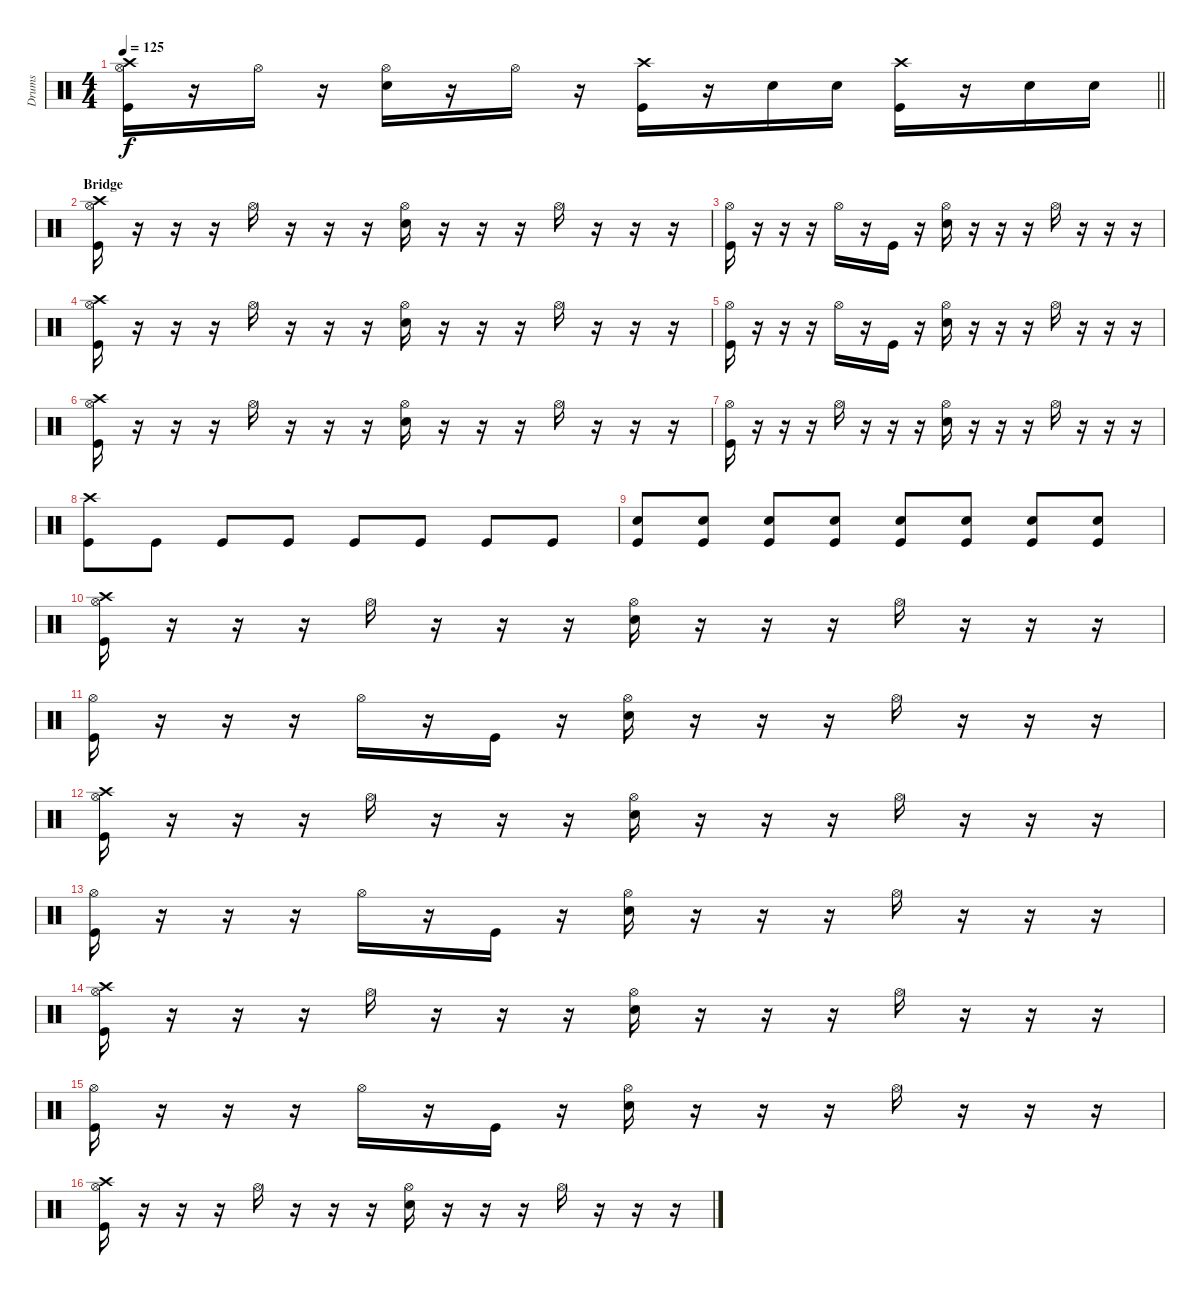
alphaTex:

\track ("Drums" "Drums") {instrument percussion}
\staff {score}
\articulation defaults
\ts (4 4)
\tempo 125
\clef neutral
\barLineRight lightlight
\ks c
("Crash high (hit)" "Hi-Hat (open)" "Kick (hit)").16{dy f} r.16 "Hi-Hat (open)".16 r.16 ("Hi-Hat (open)" "Snare (hit) 2").16 r.16 "Hi-Hat (open)".16 r.16 ("Crash high (hit)" "Kick (hit)").16 r.16 "Snare (hit) 2".16 "Snare (hit) 2".16 ("Crash high (hit)" "Kick (hit)").16 r.16 "Snare (hit) 2".16 "Snare (hit) 2".16 |
\section ("" "Bridge")
("Crash high (hit)" "Hi-Hat (open)" "Kick (hit)").16 r.16 r.16 r.16 "Hi-Hat (open)".16 r.16 r.16 r.16 ("Hi-Hat (open)" "Snare (hit) 2").16 r.16 r.16 r.16 "Hi-Hat (open)".16 r.16 r.16 r.16 |
("Hi-Hat (open)" "Kick (hit)").16 r.16 r.16 r.16 "Hi-Hat (open)".16 r.16 "Kick (hit)".16 r.16 ("Hi-Hat (open)" "Snare (hit) 2").16 r.16 r.16 r.16 "Hi-Hat (open)".16 r.16 r.16 r.16 |
("Crash high (hit)" "Hi-Hat (open)" "Kick (hit)").16 r.16 r.16 r.16 "Hi-Hat (open)".16 r.16 r.16 r.16 ("Hi-Hat (open)" "Snare (hit) 2").16 r.16 r.16 r.16 "Hi-Hat (open)".16 r.16 r.16 r.16 |
("Hi-Hat (open)" "Kick (hit)").16 r.16 r.16 r.16 "Hi-Hat (open)".16 r.16 "Kick (hit)".16 r.16 ("Hi-Hat (open)" "Snare (hit) 2").16 r.16 r.16 r.16 "Hi-Hat (open)".16 r.16 r.16 r.16 |
("Crash high (hit)" "Hi-Hat (open)" "Kick (hit)").16 r.16 r.16 r.16 "Hi-Hat (open)".16 r.16 r.16 r.16 ("Hi-Hat (open)" "Snare (hit) 2").16 r.16 r.16 r.16 "Hi-Hat (open)".16 r.16 r.16 r.16 |
("Hi-Hat (open)" "Kick (hit)").16 r.16 r.16 r.16 "Hi-Hat (open)".16 r.16 r.16 r.16 ("Hi-Hat (open)" "Snare (hit) 2").16 r.16 r.16 r.16 "Hi-Hat (open)".16 r.16 r.16 r.16 |
("Crash high (hit)" "Kick (hit)").8 "Kick (hit)".8 "Kick (hit)".8 "Kick (hit)".8 "Kick (hit)".8 "Kick (hit)".8 "Kick (hit)".8 "Kick (hit)".8 |
("Snare (hit) 2" "Kick (hit)").8 ("Snare (hit) 2" "Kick (hit)").8 ("Snare (hit) 2" "Kick (hit)").8 ("Snare (hit) 2" "Kick (hit)").8 ("Snare (hit) 2" "Kick (hit)").8 ("Snare (hit) 2" "Kick (hit)").8 ("Snare (hit) 2" "Kick (hit)").8 ("Snare (hit) 2" "Kick (hit)").8 |
("Crash high (hit)" "Hi-Hat (open)" "Kick (hit)").16 r.16 r.16 r.16 "Hi-Hat (open)".16 r.16 r.16 r.16 ("Hi-Hat (open)" "Snare (hit) 2").16 r.16 r.16 r.16 "Hi-Hat (open)".16 r.16 r.16 r.16 |
("Hi-Hat (open)" "Kick (hit)").16 r.16 r.16 r.16 "Hi-Hat (open)".16 r.16 "Kick (hit)".16 r.16 ("Hi-Hat (open)" "Snare (hit) 2").16 r.16 r.16 r.16 "Hi-Hat (open)".16 r.16 r.16 r.16 |
("Crash high (hit)" "Hi-Hat (open)" "Kick (hit)").16 r.16 r.16 r.16 "Hi-Hat (open)".16 r.16 r.16 r.16 ("Hi-Hat (open)" "Snare (hit) 2").16 r.16 r.16 r.16 "Hi-Hat (open)".16 r.16 r.16 r.16 |
("Hi-Hat (open)" "Kick (hit)").16 r.16 r.16 r.16 "Hi-Hat (open)".16 r.16 "Kick (hit)".16 r.16 ("Hi-Hat (open)" "Snare (hit) 2").16 r.16 r.16 r.16 "Hi-Hat (open)".16 r.16 r.16 r.16 |
("Crash high (hit)" "Hi-Hat (open)" "Kick (hit)").16 r.16 r.16 r.16 "Hi-Hat (open)".16 r.16 r.16 r.16 ("Hi-Hat (open)" "Snare (hit) 2").16 r.16 r.16 r.16 "Hi-Hat (open)".16 r.16 r.16 r.16 |
("Hi-Hat (open)" "Kick (hit)").16 r.16 r.16 r.16 "Hi-Hat (open)".16 r.16 "Kick (hit)".16 r.16 ("Hi-Hat (open)" "Snare (hit) 2").16 r.16 r.16 r.16 "Hi-Hat (open)".16 r.16 r.16 r.16 |
("Crash high (hit)" "Hi-Hat (open)" "Kick (hit)").16 r.16 r.16 r.16 "Hi-Hat (open)".16 r.16 r.16 r.16 ("Hi-Hat (open)" "Snare (hit) 2").16 r.16 r.16 r.16 "Hi-Hat (open)".16 r.16 r.16 r.16
